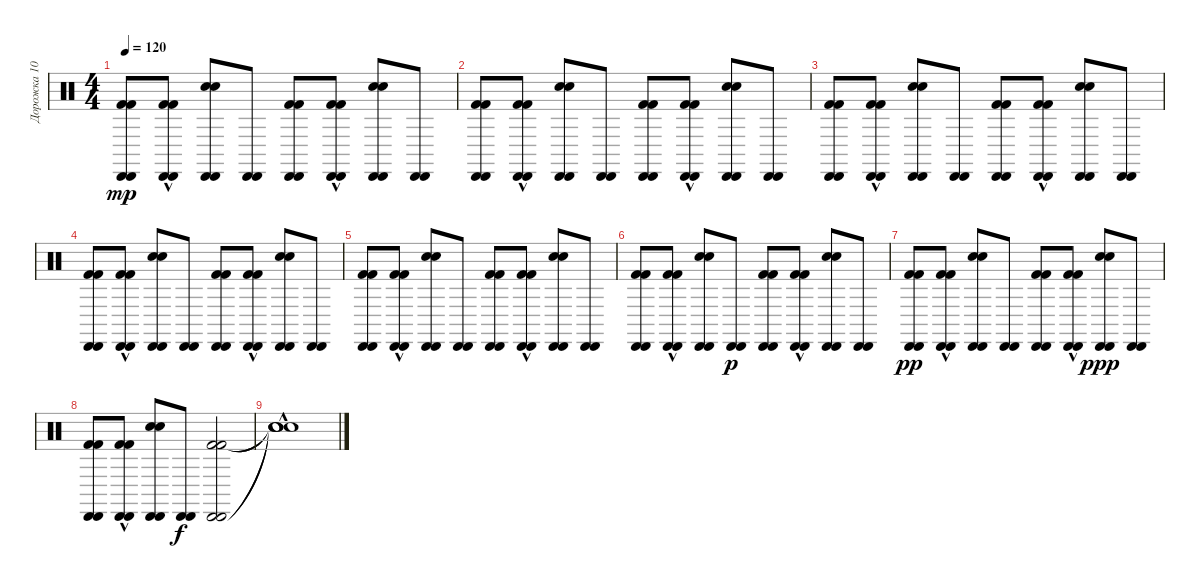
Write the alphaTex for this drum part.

\track ("Дорожка 10" "Дорожка 10") {instrument percussion}
\staff {score}
\articulation defaults
\ts (4 4)
\tempo 120
\clef neutral
\ks c
("Kick (hit) 2" "Cabasa (hit)" "Kick (hit) 2" "Cabasa (hit)").8{dy mp} ("Kick (hit) 2"{hac} "Cabasa (hit)" "Kick (hit) 2"{hac} "Cabasa (hit)").8 ("Snare (hit) 2" "Cabasa (hit)" "Snare (hit) 2" "Cabasa (hit)").8 ("Cabasa (hit)" "Cabasa (hit)").8 ("Kick (hit) 2" "Cabasa (hit)" "Kick (hit) 2" "Cabasa (hit)").8 ("Kick (hit) 2"{hac} "Cabasa (hit)" "Kick (hit) 2"{hac} "Cabasa (hit)").8 ("Snare (hit) 2" "Cabasa (hit)" "Snare (hit) 2" "Cabasa (hit)").8 ("Cabasa (hit)" "Cabasa (hit)").8 |
("Kick (hit) 2" "Cabasa (hit)" "Kick (hit) 2" "Cabasa (hit)").8 ("Kick (hit) 2"{hac} "Cabasa (hit)" "Kick (hit) 2"{hac} "Cabasa (hit)").8 ("Snare (hit) 2" "Cabasa (hit)" "Snare (hit) 2" "Cabasa (hit)").8 ("Cabasa (hit)" "Cabasa (hit)").8 ("Kick (hit) 2" "Cabasa (hit)" "Kick (hit) 2" "Cabasa (hit)").8 ("Kick (hit) 2"{hac} "Cabasa (hit)" "Kick (hit) 2"{hac} "Cabasa (hit)").8 ("Snare (hit) 2" "Cabasa (hit)" "Snare (hit) 2" "Cabasa (hit)").8 ("Cabasa (hit)" "Cabasa (hit)").8 |
("Kick (hit) 2" "Cabasa (hit)" "Kick (hit) 2" "Cabasa (hit)").8 ("Kick (hit) 2"{hac} "Cabasa (hit)" "Kick (hit) 2"{hac} "Cabasa (hit)").8 ("Snare (hit) 2" "Cabasa (hit)" "Snare (hit) 2" "Cabasa (hit)").8 ("Cabasa (hit)" "Cabasa (hit)").8 ("Kick (hit) 2" "Cabasa (hit)" "Kick (hit) 2" "Cabasa (hit)").8 ("Kick (hit) 2"{hac} "Cabasa (hit)" "Kick (hit) 2"{hac} "Cabasa (hit)").8 ("Snare (hit) 2" "Cabasa (hit)" "Snare (hit) 2" "Cabasa (hit)").8 ("Cabasa (hit)" "Cabasa (hit)").8 |
("Kick (hit) 2" "Cabasa (hit)" "Kick (hit) 2" "Cabasa (hit)").8 ("Kick (hit) 2"{hac} "Cabasa (hit)" "Kick (hit) 2"{hac} "Cabasa (hit)").8 ("Snare (hit) 2" "Cabasa (hit)" "Snare (hit) 2" "Cabasa (hit)").8 ("Cabasa (hit)" "Cabasa (hit)").8 ("Kick (hit) 2" "Cabasa (hit)" "Kick (hit) 2" "Cabasa (hit)").8 ("Kick (hit) 2"{hac} "Cabasa (hit)" "Kick (hit) 2"{hac} "Cabasa (hit)").8 ("Snare (hit) 2" "Cabasa (hit)" "Snare (hit) 2" "Cabasa (hit)").8 ("Cabasa (hit)" "Cabasa (hit)").8 |
("Kick (hit) 2" "Cabasa (hit)" "Kick (hit) 2" "Cabasa (hit)").8 ("Kick (hit) 2"{hac} "Cabasa (hit)" "Kick (hit) 2"{hac} "Cabasa (hit)").8 ("Snare (hit) 2" "Cabasa (hit)" "Snare (hit) 2" "Cabasa (hit)").8 ("Cabasa (hit)" "Cabasa (hit)").8 ("Kick (hit) 2" "Cabasa (hit)" "Kick (hit) 2" "Cabasa (hit)").8 ("Kick (hit) 2"{hac} "Cabasa (hit)" "Kick (hit) 2"{hac} "Cabasa (hit)").8 ("Snare (hit) 2" "Cabasa (hit)" "Snare (hit) 2" "Cabasa (hit)").8 ("Cabasa (hit)" "Cabasa (hit)").8 |
("Kick (hit) 2" "Cabasa (hit)" "Kick (hit) 2" "Cabasa (hit)").8 ("Kick (hit) 2"{hac} "Cabasa (hit)" "Kick (hit) 2"{hac} "Cabasa (hit)").8 ("Snare (hit) 2" "Cabasa (hit)" "Snare (hit) 2" "Cabasa (hit)").8 ("Cabasa (hit)" "Cabasa (hit)").8{dy p} ("Kick (hit) 2" "Cabasa (hit)" "Kick (hit) 2" "Cabasa (hit)").8 ("Kick (hit) 2"{hac} "Cabasa (hit)" "Kick (hit) 2"{hac} "Cabasa (hit)").8 ("Snare (hit) 2" "Cabasa (hit)" "Snare (hit) 2" "Cabasa (hit)").8 ("Cabasa (hit)" "Cabasa (hit)").8 |
("Kick (hit) 2" "Cabasa (hit)" "Kick (hit) 2" "Cabasa (hit)").8{dy pp} ("Kick (hit) 2"{hac} "Cabasa (hit)" "Kick (hit) 2"{hac} "Cabasa (hit)").8 ("Snare (hit) 2" "Cabasa (hit)" "Snare (hit) 2" "Cabasa (hit)").8 ("Cabasa (hit)" "Cabasa (hit)").8 ("Kick (hit) 2" "Cabasa (hit)" "Kick (hit) 2" "Cabasa (hit)").8 ("Kick (hit) 2"{hac} "Cabasa (hit)" "Kick (hit) 2"{hac} "Cabasa (hit)").8 ("Snare (hit) 2" "Cabasa (hit)" "Snare (hit) 2" "Cabasa (hit)").8{dy ppp} ("Cabasa (hit)" "Cabasa (hit)").8 |
("Kick (hit) 2" "Cabasa (hit)" "Kick (hit) 2" "Cabasa (hit)").8 ("Kick (hit) 2"{hac} "Cabasa (hit)" "Kick (hit) 2"{hac} "Cabasa (hit)").8 ("Snare (hit) 2" "Cabasa (hit)" "Snare (hit) 2" "Cabasa (hit)").8 ("Cabasa (hit)" "Cabasa (hit)").8{dy f} ("Kick (hit) 2" "Cabasa (hit)" "Kick (hit) 2" "Cabasa (hit)").2 |
("Snare (hit)"{hac t} "Snare (hit)"{t} "Snare (hit)"{hac t} "Snare (hit)"{t}).1
